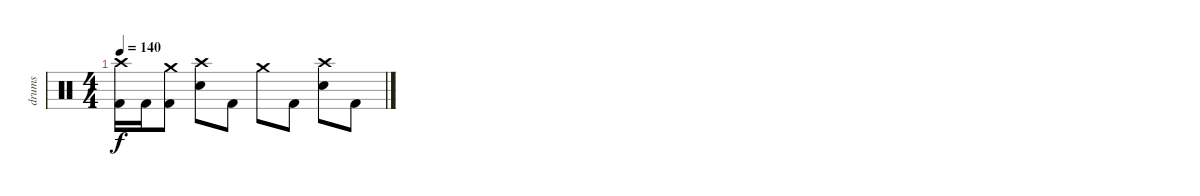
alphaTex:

\track ("drums" "drums") {instrument percussion}
\staff {score}
\articulation defaults
\ts (4 4)
\tempo 140
\clef neutral
\ks c
("Crash high (hit)" "Kick (hit) 2").16{dy f} "Kick (hit) 2".16 ("Crash medium (hit)" "Kick (hit) 2").8 ("Crash high (hit)" "Electric Snare (hit)").8 "Kick (hit) 2".8 "Crash medium (hit)".8 "Kick (hit) 2".8 ("Crash high (hit)" "Electric Snare (hit)").8 "Kick (hit) 2".8
